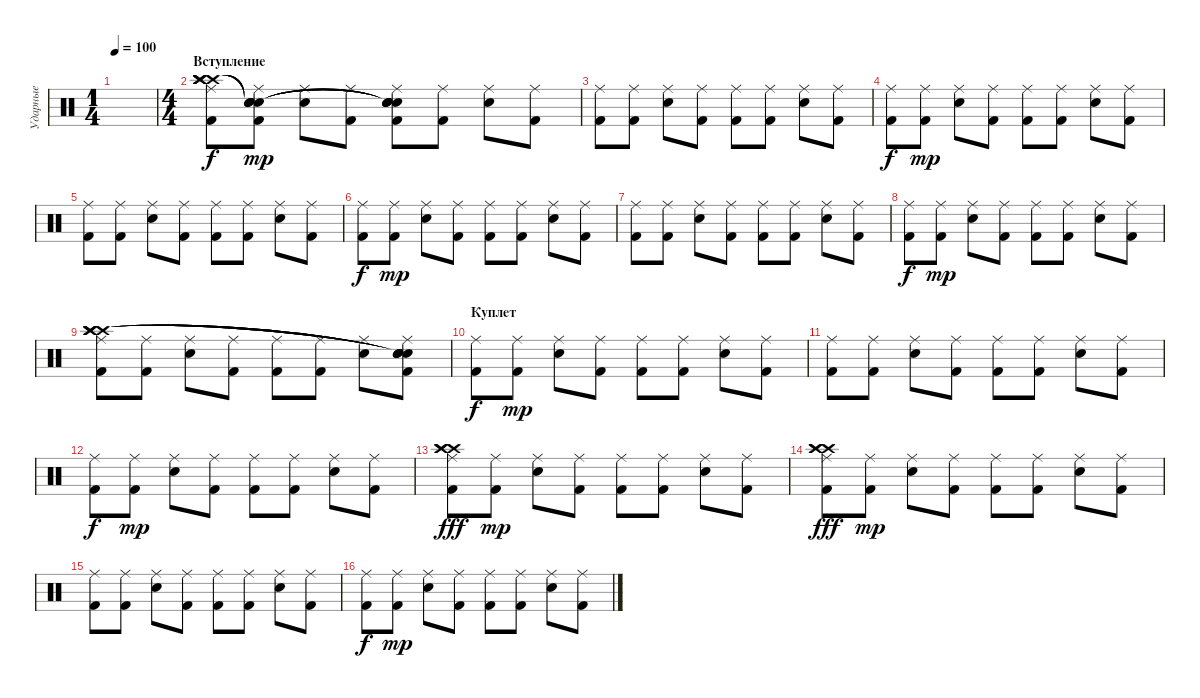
\track ("Ударные" "Ударные") {instrument percussion}
\staff {score}
\articulation defaults
\ts (1 4)
\tempo 100
\clef neutral
\ks c
|
\ts (4 4)
\section ("" "Вступление")
("Kick (hit) 2" "Ride (middle)" "Crash high (hit)" "Crash high (hit)" "Crash high (hit)" "Crash high (hit)").8 ("Kick (hit) 2" "Ride (middle)" "Snare (hit)"{t} "Snare (hit)"{t} "Snare (hit)"{t} "Snare (hit)"{t}).8{dy mp} ("Electric Snare (hit)" "Ride (middle)").8 ("Kick (hit) 2" "Ride (middle)").8 ("Kick (hit) 2" "Ride (middle)" "Snare (hit)"{t} "Snare (hit)"{t} "Snare (hit)"{t} "Snare (hit)"{t}).8 ("Kick (hit) 2" "Ride (middle)").8 ("Electric Snare (hit)" "Ride (middle)").8 ("Kick (hit) 2" "Ride (middle)").8 |
("Kick (hit) 2" "Ride (middle)").8 ("Kick (hit) 2" "Ride (middle)").8 ("Electric Snare (hit)" "Ride (middle)").8 ("Kick (hit) 2" "Ride (middle)").8 ("Kick (hit) 2" "Ride (middle)").8 ("Kick (hit) 2" "Ride (middle)").8 ("Electric Snare (hit)" "Ride (middle)").8 ("Kick (hit) 2" "Ride (middle)").8 |
("Kick (hit) 2" "Ride (middle)").8{dy f} ("Kick (hit) 2" "Ride (middle)").8{dy mp} ("Electric Snare (hit)" "Ride (middle)").8 ("Kick (hit) 2" "Ride (middle)").8 ("Kick (hit) 2" "Ride (middle)").8 ("Kick (hit) 2" "Ride (middle)").8 ("Electric Snare (hit)" "Ride (middle)").8 ("Kick (hit) 2" "Ride (middle)").8 |
("Kick (hit) 2" "Ride (middle)").8 ("Kick (hit) 2" "Ride (middle)").8 ("Electric Snare (hit)" "Ride (middle)").8 ("Kick (hit) 2" "Ride (middle)").8 ("Kick (hit) 2" "Ride (middle)").8 ("Kick (hit) 2" "Ride (middle)").8 ("Electric Snare (hit)" "Ride (middle)").8 ("Kick (hit) 2" "Ride (middle)").8 |
("Kick (hit) 2" "Ride (middle)").8{dy f} ("Kick (hit) 2" "Ride (middle)").8{dy mp} ("Electric Snare (hit)" "Ride (middle)").8 ("Kick (hit) 2" "Ride (middle)").8 ("Kick (hit) 2" "Ride (middle)").8 ("Kick (hit) 2" "Ride (middle)").8 ("Electric Snare (hit)" "Ride (middle)").8 ("Kick (hit) 2" "Ride (middle)").8 |
("Kick (hit) 2" "Ride (middle)").8 ("Kick (hit) 2" "Ride (middle)").8 ("Electric Snare (hit)" "Ride (middle)").8 ("Kick (hit) 2" "Ride (middle)").8 ("Kick (hit) 2" "Ride (middle)").8 ("Kick (hit) 2" "Ride (middle)").8 ("Electric Snare (hit)" "Ride (middle)").8 ("Kick (hit) 2" "Ride (middle)").8 |
("Kick (hit) 2" "Ride (middle)").8{dy f} ("Kick (hit) 2" "Ride (middle)").8{dy mp} ("Electric Snare (hit)" "Ride (middle)").8 ("Kick (hit) 2" "Ride (middle)").8 ("Kick (hit) 2" "Ride (middle)").8 ("Kick (hit) 2" "Ride (middle)").8 ("Electric Snare (hit)" "Ride (middle)").8 ("Kick (hit) 2" "Ride (middle)").8 |
("Kick (hit) 2" "Ride (middle)" "Crash high (hit)" "Crash high (hit)" "Crash high (hit)" "Crash high (hit)").8 ("Kick (hit) 2" "Ride (middle)").8 ("Electric Snare (hit)" "Ride (middle)").8 ("Kick (hit) 2" "Ride (middle)").8 ("Kick (hit) 2" "Ride (middle)").8 ("Kick (hit) 2" "Ride (middle)").8 ("Electric Snare (hit)" "Ride (middle)").8 ("Kick (hit) 2" "Ride (middle)" "Snare (hit)"{t} "Snare (hit)"{t} "Snare (hit)"{t} "Snare (hit)"{t}).8 |
\section ("" "Куплет")
("Kick (hit) 2" "Ride (middle)").8{dy f} ("Kick (hit) 2" "Ride (middle)").8{dy mp} ("Electric Snare (hit)" "Ride (middle)").8 ("Kick (hit) 2" "Ride (middle)").8 ("Kick (hit) 2" "Ride (middle)").8 ("Kick (hit) 2" "Ride (middle)").8 ("Electric Snare (hit)" "Ride (middle)").8 ("Kick (hit) 2" "Ride (middle)").8 |
("Kick (hit) 2" "Ride (middle)").8 ("Kick (hit) 2" "Ride (middle)").8 ("Electric Snare (hit)" "Ride (middle)").8 ("Kick (hit) 2" "Ride (middle)").8 ("Kick (hit) 2" "Ride (middle)").8 ("Kick (hit) 2" "Ride (middle)").8 ("Electric Snare (hit)" "Ride (middle)").8 ("Kick (hit) 2" "Ride (middle)").8 |
("Kick (hit) 2" "Ride (middle)").8{dy f} ("Kick (hit) 2" "Ride (middle)").8{dy mp} ("Electric Snare (hit)" "Ride (middle)").8 ("Kick (hit) 2" "Ride (middle)").8 ("Kick (hit) 2" "Ride (middle)").8 ("Kick (hit) 2" "Ride (middle)").8 ("Electric Snare (hit)" "Ride (middle)").8 ("Kick (hit) 2" "Ride (middle)").8 |
("Kick (hit) 2" "Ride (middle)" "Crash high (hit)" "Crash high (hit)" "Crash high (hit)").8{dy fff} ("Kick (hit) 2" "Ride (middle)").8{dy mp} ("Electric Snare (hit)" "Ride (middle)").8 ("Kick (hit) 2" "Ride (middle)").8 ("Kick (hit) 2" "Ride (middle)").8 ("Kick (hit) 2" "Ride (middle)").8 ("Electric Snare (hit)" "Ride (middle)").8 ("Kick (hit) 2" "Ride (middle)").8 |
("Kick (hit) 2" "Ride (middle)" "Crash high (hit)" "Crash high (hit)" "Crash high (hit)").8{dy fff} ("Kick (hit) 2" "Ride (middle)").8{dy mp} ("Electric Snare (hit)" "Ride (middle)").8 ("Kick (hit) 2" "Ride (middle)").8 ("Kick (hit) 2" "Ride (middle)").8 ("Kick (hit) 2" "Ride (middle)").8 ("Electric Snare (hit)" "Ride (middle)").8 ("Kick (hit) 2" "Ride (middle)").8 |
("Kick (hit) 2" "Ride (middle)").8 ("Kick (hit) 2" "Ride (middle)").8 ("Electric Snare (hit)" "Ride (middle)").8 ("Kick (hit) 2" "Ride (middle)").8 ("Kick (hit) 2" "Ride (middle)").8 ("Kick (hit) 2" "Ride (middle)").8 ("Electric Snare (hit)" "Ride (middle)").8 ("Kick (hit) 2" "Ride (middle)").8 |
("Kick (hit) 2" "Ride (middle)").8{dy f} ("Kick (hit) 2" "Ride (middle)").8{dy mp} ("Electric Snare (hit)" "Ride (middle)").8 ("Kick (hit) 2" "Ride (middle)").8 ("Kick (hit) 2" "Ride (middle)").8 ("Kick (hit) 2" "Ride (middle)").8 ("Electric Snare (hit)" "Ride (middle)").8 ("Kick (hit) 2" "Ride (middle)").8
